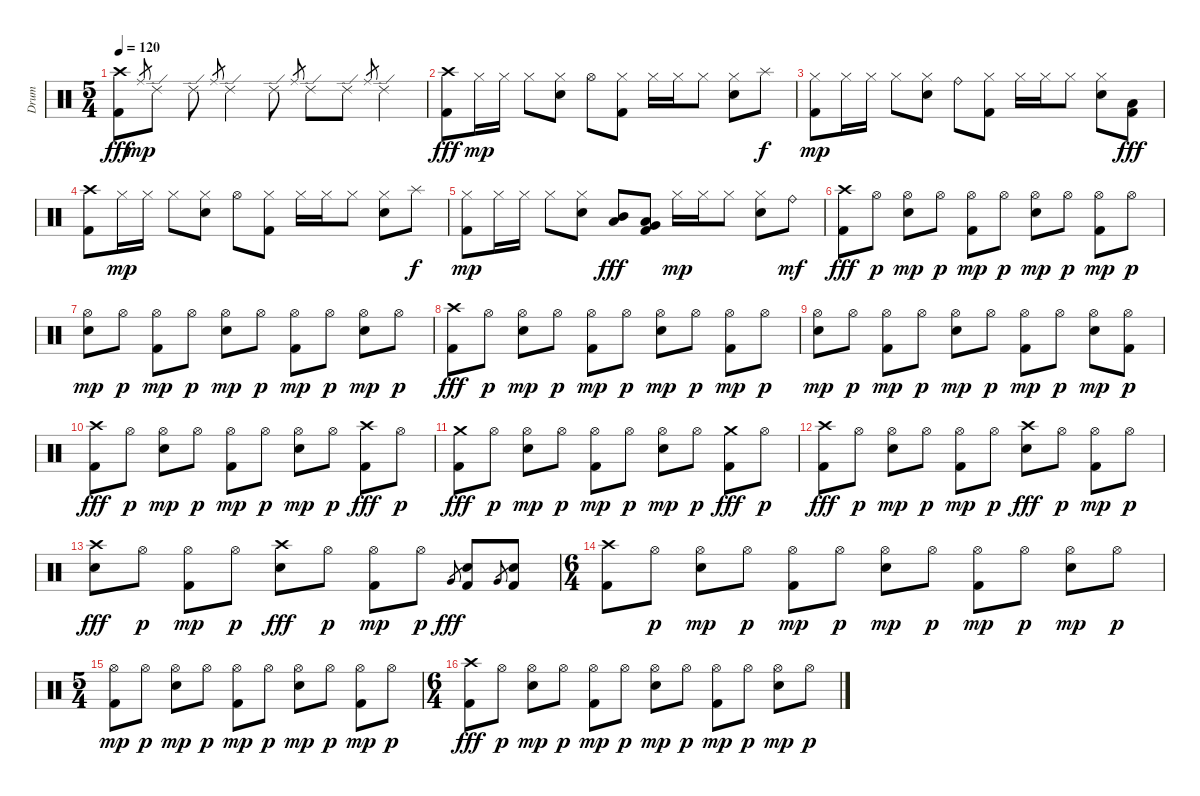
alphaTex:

\track ("Drum" "Drum") {instrument percussion}
\staff {score}
\articulation defaults
\ts (5 4)
\tempo 120
\clef neutral
\ks c
("Kick (hit) 2" "Crash high (hit)").8{dy fff} "Ride (middle)".8{gr dy mp} "Ride (edge) 2".8 "Ride (edge) 2".8 "Ride (middle)".8{gr} "Ride (edge) 2".4 "Ride (edge) 2".8 "Ride (middle)".8{gr} "Ride (edge) 2".8 "Ride (edge) 2".8 "Ride (middle)".8{gr} "Ride (edge) 2".4 |
("Kick (hit) 2" "Crash high (hit)").8{dy fff} "Hi-Hat (closed)".16{dy mp} "Hi-Hat (closed)".16 "Hi-Hat (closed)".8 ("Electric Snare (hit)" "Hi-Hat (closed)").8 "Hi-Hat (open)".8 ("Kick (hit) 2" "Hi-Hat (closed)").8 "Hi-Hat (closed)".16 "Hi-Hat (closed)".16 "Hi-Hat (closed)".8 ("Electric Snare (hit)" "Hi-Hat (closed)").8 "Splash (hit)".8{dy f} |
("Kick (hit) 2" "Hi-Hat (closed)").8{dy mp} "Hi-Hat (closed)".16 "Hi-Hat (closed)".16 "Hi-Hat (closed)".8 ("Electric Snare (hit)" "Hi-Hat (closed)").8 "Ride (bell)".8 ("Kick (hit) 2" "Hi-Hat (closed)").8 "Hi-Hat (closed)".16 "Hi-Hat (closed)".16 "Hi-Hat (closed)".8 ("Electric Snare (hit)" "Hi-Hat (closed)").8 ("Kick (hit) 2" "Low Tom (hit)").8{dy fff} |
("Kick (hit) 2" "Crash high (hit)").8 "Hi-Hat (closed)".16{dy mp} "Hi-Hat (closed)".16 "Hi-Hat (closed)".8 ("Electric Snare (hit)" "Hi-Hat (closed)").8 "Hi-Hat (open)".8 ("Kick (hit) 2" "Hi-Hat (closed)").8 "Hi-Hat (closed)".16 "Hi-Hat (closed)".16 "Hi-Hat (closed)".8 ("Electric Snare (hit)" "Hi-Hat (closed)").8 "Splash (hit)".8{dy f} |
("Kick (hit) 2" "Hi-Hat (closed)").8{dy mp} "Hi-Hat (closed)".16 "Hi-Hat (closed)".16 "Hi-Hat (closed)".8 ("Electric Snare (hit)" "Hi-Hat (closed)").8 ("Low Tom (hit)" "Mid Tom (hit)").8{dy fff} ("Kick (hit) 2" "Very Low Tom (hit)" "Low Tom (hit)").8 "Hi-Hat (closed)".16{dy mp} "Hi-Hat (closed)".16 "Hi-Hat (closed)".8 ("Electric Snare (hit)" "Hi-Hat (closed)").8 "Ride (bell)".8{dy mf} |
("Kick (hit) 2" "Crash high (hit)").8{dy fff} "Hi-Hat (open)".8{dy p} ("Electric Snare (hit)" "Hi-Hat (open)").8{dy mp} "Hi-Hat (open)".8{dy p} ("Kick (hit) 2" "Hi-Hat (open)").8{dy mp} "Hi-Hat (open)".8{dy p} ("Electric Snare (hit)" "Hi-Hat (open)").8{dy mp} "Hi-Hat (open)".8{dy p} ("Kick (hit) 2" "Hi-Hat (open)").8{dy mp} "Hi-Hat (open)".8{dy p} |
("Electric Snare (hit)" "Hi-Hat (open)").8{dy mp} "Hi-Hat (open)".8{dy p} ("Kick (hit) 2" "Hi-Hat (open)").8{dy mp} "Hi-Hat (open)".8{dy p} ("Electric Snare (hit)" "Hi-Hat (open)").8{dy mp} "Hi-Hat (open)".8{dy p} ("Kick (hit) 2" "Hi-Hat (open)").8{dy mp} "Hi-Hat (open)".8{dy p} ("Electric Snare (hit)" "Hi-Hat (open)").8{dy mp} "Hi-Hat (open)".8{dy p} |
("Kick (hit) 2" "Crash high (hit)").8{dy fff} "Hi-Hat (open)".8{dy p} ("Electric Snare (hit)" "Hi-Hat (open)").8{dy mp} "Hi-Hat (open)".8{dy p} ("Kick (hit) 2" "Hi-Hat (open)").8{dy mp} "Hi-Hat (open)".8{dy p} ("Electric Snare (hit)" "Hi-Hat (open)").8{dy mp} "Hi-Hat (open)".8{dy p} ("Kick (hit) 2" "Hi-Hat (open)").8{dy mp} "Hi-Hat (open)".8{dy p} |
("Electric Snare (hit)" "Hi-Hat (open)").8{dy mp} "Hi-Hat (open)".8{dy p} ("Kick (hit) 2" "Hi-Hat (open)").8{dy mp} "Hi-Hat (open)".8{dy p} ("Electric Snare (hit)" "Hi-Hat (open)").8{dy mp} "Hi-Hat (open)".8{dy p} ("Kick (hit) 2" "Hi-Hat (open)").8{dy mp} "Hi-Hat (open)".8{dy p} ("Electric Snare (hit)" "Hi-Hat (open)").8{dy mp} ("Kick (hit) 2" "Hi-Hat (open)").8{dy p} |
("Kick (hit) 2" "Crash high (hit)").8{dy fff} "Hi-Hat (open)".8{dy p} ("Electric Snare (hit)" "Hi-Hat (open)").8{dy mp} "Hi-Hat (open)".8{dy p} ("Kick (hit) 2" "Hi-Hat (open)").8{dy mp} "Hi-Hat (open)".8{dy p} ("Electric Snare (hit)" "Hi-Hat (open)").8{dy mp} "Hi-Hat (open)".8{dy p} ("Kick (hit) 2" "Crash high (hit)").8{dy fff} "Hi-Hat (open)".8{dy p} |
("Kick (hit) 2" "Crash medium (hit)").8{dy fff} "Hi-Hat (open)".8{dy p} ("Electric Snare (hit)" "Hi-Hat (open)").8{dy mp} "Hi-Hat (open)".8{dy p} ("Kick (hit) 2" "Hi-Hat (open)").8{dy mp} "Hi-Hat (open)".8{dy p} ("Electric Snare (hit)" "Hi-Hat (open)").8{dy mp} "Hi-Hat (open)".8{dy p} ("Kick (hit) 2" "Crash medium (hit)").8{dy fff} "Hi-Hat (open)".8{dy p} |
("Kick (hit) 2" "Crash high (hit)").8{dy fff} "Hi-Hat (open)".8{dy p} ("Electric Snare (hit)" "Hi-Hat (open)").8{dy mp} "Hi-Hat (open)".8{dy p} ("Kick (hit) 2" "Hi-Hat (open)").8{dy mp} "Hi-Hat (open)".8{dy p} ("Electric Snare (hit)" "Crash high (hit)").8{dy fff} "Hi-Hat (open)".8{dy p} ("Kick (hit) 2" "Hi-Hat (open)").8{dy mp} "Hi-Hat (open)".8{dy p} |
("Electric Snare (hit)" "Crash high (hit)").8{dy fff} "Hi-Hat (open)".8{dy p} ("Kick (hit) 2" "Hi-Hat (open)").8{dy mp} "Hi-Hat (open)".8{dy p} ("Electric Snare (hit)" "Crash high (hit)").8{dy fff} "Hi-Hat (open)".8{dy p} ("Kick (hit) 2" "Hi-Hat (open)").8{dy mp} "Hi-Hat (open)".8{dy p} "Very Low Tom (hit)".8{gr dy fff} ("Electric Snare (hit)" "Kick (hit) 2").8 "Very Low Tom (hit)".8{gr} ("Electric Snare (hit)" "Kick (hit) 2").8 |
\ts (6 4)
("Kick (hit) 2" "Crash high (hit)").8 "Hi-Hat (open)".8{dy p} ("Electric Snare (hit)" "Hi-Hat (open)").8{dy mp} "Hi-Hat (open)".8{dy p} ("Kick (hit) 2" "Hi-Hat (open)").8{dy mp} "Hi-Hat (open)".8{dy p} ("Electric Snare (hit)" "Hi-Hat (open)").8{dy mp} "Hi-Hat (open)".8{dy p} ("Kick (hit) 2" "Hi-Hat (open)").8{dy mp} "Hi-Hat (open)".8{dy p} ("Electric Snare (hit)" "Hi-Hat (open)").8{dy mp} "Hi-Hat (open)".8{dy p} |
\ts (5 4)
("Kick (hit) 2" "Hi-Hat (open)").8{dy mp} "Hi-Hat (open)".8{dy p} ("Electric Snare (hit)" "Hi-Hat (open)").8{dy mp} "Hi-Hat (open)".8{dy p} ("Kick (hit) 2" "Hi-Hat (open)").8{dy mp} "Hi-Hat (open)".8{dy p} ("Electric Snare (hit)" "Hi-Hat (open)").8{dy mp} "Hi-Hat (open)".8{dy p} ("Kick (hit) 2" "Hi-Hat (open)").8{dy mp} "Hi-Hat (open)".8{dy p} |
\ts (6 4)
("Kick (hit) 2" "Crash high (hit)").8{dy fff} "Hi-Hat (open)".8{dy p} ("Electric Snare (hit)" "Hi-Hat (open)").8{dy mp} "Hi-Hat (open)".8{dy p} ("Kick (hit) 2" "Hi-Hat (open)").8{dy mp} "Hi-Hat (open)".8{dy p} ("Electric Snare (hit)" "Hi-Hat (open)").8{dy mp} "Hi-Hat (open)".8{dy p} ("Kick (hit) 2" "Hi-Hat (open)").8{dy mp} "Hi-Hat (open)".8{dy p} ("Electric Snare (hit)" "Hi-Hat (open)").8{dy mp} "Hi-Hat (open)".8{dy p}
